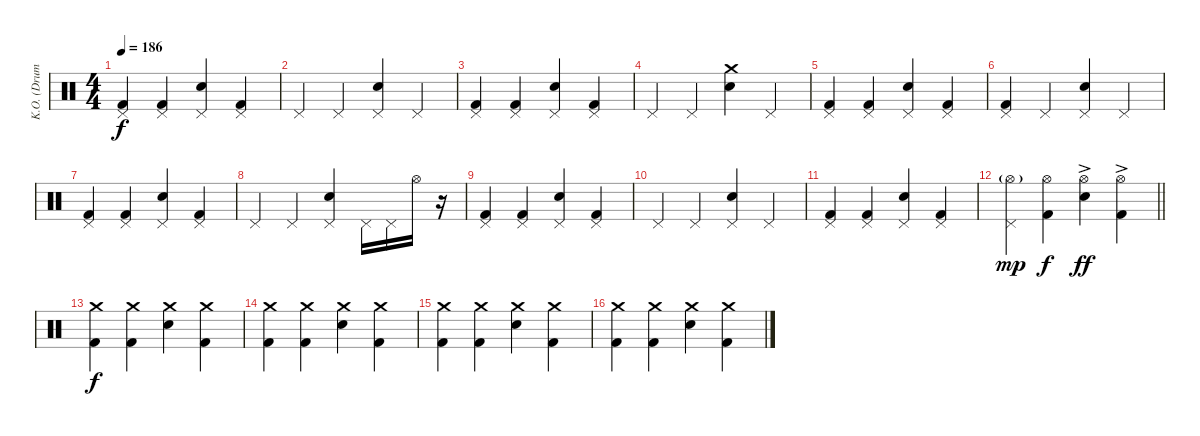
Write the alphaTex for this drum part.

\track ("K.O. (Drums)" "K.O. (Drum") {instrument percussion}
\staff {score}
\articulation defaults
\ts (4 4)
\tempo 186
\clef neutral
\ks c
("Pedal Hi-Hat (hit)" "Kick (hit) 2").4{dy f} ("Pedal Hi-Hat (hit)" "Kick (hit) 2").4 ("Pedal Hi-Hat (hit)" "Electric Snare (hit)").4 ("Pedal Hi-Hat (hit)" "Kick (hit) 2").4 |
"Pedal Hi-Hat (hit)".4 "Pedal Hi-Hat (hit)".4 ("Pedal Hi-Hat (hit)" "Electric Snare (hit)").4 "Pedal Hi-Hat (hit)".4 |
("Pedal Hi-Hat (hit)" "Kick (hit) 2").4 ("Pedal Hi-Hat (hit)" "Kick (hit) 2").4 ("Pedal Hi-Hat (hit)" "Electric Snare (hit)").4 ("Pedal Hi-Hat (hit)" "Kick (hit) 2").4 |
"Pedal Hi-Hat (hit)".4 "Pedal Hi-Hat (hit)".4 ("Crash medium (hit)" "Electric Snare (hit)").4 "Pedal Hi-Hat (hit)".4 |
("Pedal Hi-Hat (hit)" "Kick (hit) 2").4 ("Pedal Hi-Hat (hit)" "Kick (hit) 2").4 ("Pedal Hi-Hat (hit)" "Electric Snare (hit)").4 ("Pedal Hi-Hat (hit)" "Kick (hit) 2").4 |
("Pedal Hi-Hat (hit)" "Kick (hit) 2").4 "Pedal Hi-Hat (hit)".4 ("Pedal Hi-Hat (hit)" "Electric Snare (hit)").4 "Pedal Hi-Hat (hit)".4 |
("Pedal Hi-Hat (hit)" "Kick (hit) 2").4 ("Pedal Hi-Hat (hit)" "Kick (hit) 2").4 ("Pedal Hi-Hat (hit)" "Electric Snare (hit)").4 ("Pedal Hi-Hat (hit)" "Kick (hit) 2").4 |
"Pedal Hi-Hat (hit)".4 "Pedal Hi-Hat (hit)".4 ("Pedal Hi-Hat (hit)" "Electric Snare (hit)").4 "Pedal Hi-Hat (hit)".16 "Pedal Hi-Hat (hit)".16 "Hi-Hat (open)".16 r.16 |
("Pedal Hi-Hat (hit)" "Kick (hit) 2").4 ("Pedal Hi-Hat (hit)" "Kick (hit) 2").4 ("Pedal Hi-Hat (hit)" "Electric Snare (hit)").4 ("Pedal Hi-Hat (hit)" "Kick (hit) 2").4 |
"Pedal Hi-Hat (hit)".4 "Pedal Hi-Hat (hit)".4 ("Pedal Hi-Hat (hit)" "Electric Snare (hit)").4 "Pedal Hi-Hat (hit)".4 |
("Pedal Hi-Hat (hit)" "Kick (hit) 2").4 ("Pedal Hi-Hat (hit)" "Kick (hit) 2").4 ("Pedal Hi-Hat (hit)" "Electric Snare (hit)").4 ("Pedal Hi-Hat (hit)" "Kick (hit) 2").4 |
\barLineRight lightlight
("Hi-Hat (open)"{g} "Pedal Hi-Hat (hit)").4{dy mp} ("Hi-Hat (open)" "Kick (hit) 2").4{dy f} ("Hi-Hat (open)"{ac} "Electric Snare (hit)").4{dy ff} ("Hi-Hat (open)"{ac} "Kick (hit) 2").4 |
("Crash medium (hit)" "Kick (hit) 2").4{dy f} ("Crash medium (hit)" "Kick (hit) 2").4 ("Crash medium (hit)" "Electric Snare (hit)").4 ("Crash medium (hit)" "Kick (hit) 2").4 |
("Crash medium (hit)" "Kick (hit) 2").4 ("Crash medium (hit)" "Kick (hit) 2").4 ("Crash medium (hit)" "Electric Snare (hit)").4 ("Crash medium (hit)" "Kick (hit) 2").4 |
("Crash medium (hit)" "Kick (hit) 2").4 ("Crash medium (hit)" "Kick (hit) 2").4 ("Crash medium (hit)" "Electric Snare (hit)").4 ("Crash medium (hit)" "Kick (hit) 2").4 |
("Crash medium (hit)" "Kick (hit) 2").4 ("Crash medium (hit)" "Kick (hit) 2").4 ("Crash medium (hit)" "Electric Snare (hit)").4 ("Crash medium (hit)" "Kick (hit) 2").4
